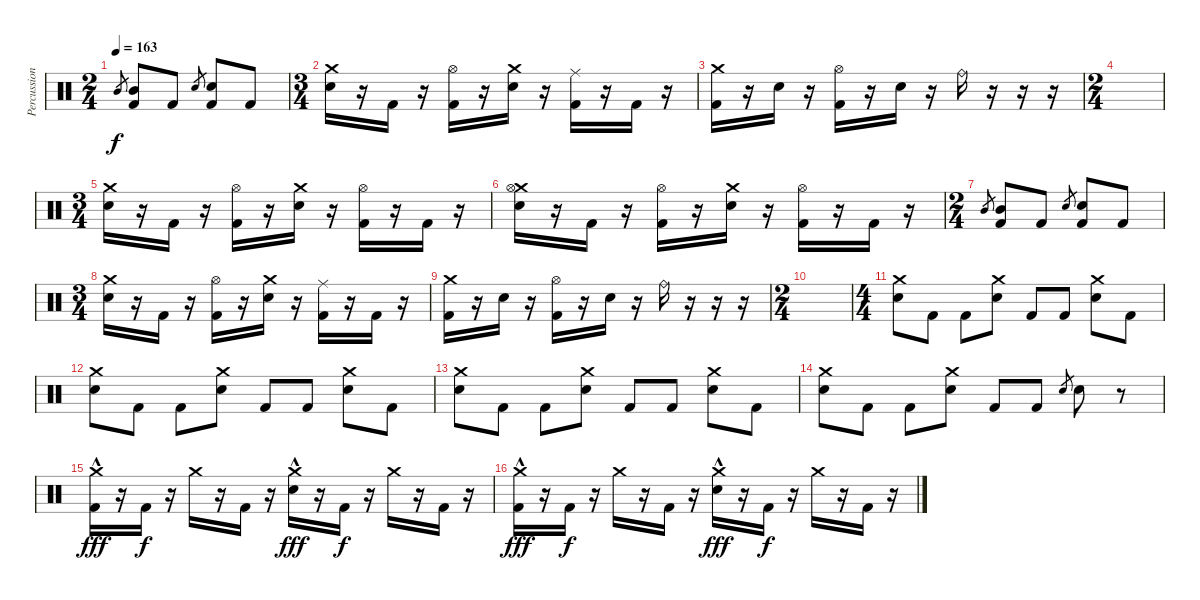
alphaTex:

\track ("Percussion" "Percussion") {instrument percussion}
\staff {score}
\articulation defaults
\ts (2 4)
\tempo 163
\clef neutral
\ks c "Mid Tom (hit)".8{gr dy f}
("Mid Tom (hit)" "Kick (hit) 2").8 "Kick (hit) 2".8 "Snare (hit) 2".8{gr} ("Snare (hit) 2" "Kick (hit) 2").8 "Kick (hit) 2".8 |
\ts (3 4)
("Crash medium (hit)" "Snare (hit) 2").16 r.16 "Kick (hit) 2".16 r.16 ("Hi-Hat (open)" "Kick (hit) 2").16 r.16 ("Crash medium (hit)" "Snare (hit) 2").16 r.16 ("Ride (middle)" "Kick (hit) 2").16 r.16 "Kick (hit) 2".16 r.16 |
("Crash medium (hit)" "Kick (hit) 2").16 r.16 "Snare (hit) 2".16 r.16 ("Hi-Hat (open)" "Kick (hit) 2").16 r.16 "Snare (hit) 2".16 r.16 "Ride (bell)".16 r.16 r.16 r.16 |
\ts (2 4)
|
\ts (3 4)
("Crash medium (hit)" "Snare (hit) 2").16 r.16 "Kick (hit) 2".16 r.16 ("Hi-Hat (open)" "Kick (hit) 2").16 r.16 ("Crash medium (hit)" "Snare (hit) 2").16 r.16 ("Hi-Hat (open)" "Kick (hit) 2").16 r.16 "Kick (hit) 2".16 r.16 |
("Crash medium (hit)" "Hi-Hat (open)" "Snare (hit) 2").16 r.16 "Kick (hit) 2".16 r.16 ("Hi-Hat (open)" "Kick (hit) 2").16 r.16 ("Crash medium (hit)" "Snare (hit) 2").16 r.16 ("Hi-Hat (open)" "Kick (hit) 2").16 r.16 "Kick (hit) 2".16 r.16 |
\ts (2 4)
"Mid Tom (hit)".8{gr} ("Mid Tom (hit)" "Kick (hit) 2").8 "Kick (hit) 2".8 "Snare (hit) 2".8{gr} ("Snare (hit) 2" "Kick (hit) 2").8 "Kick (hit) 2".8 |
\ts (3 4)
("Crash medium (hit)" "Snare (hit) 2").16 r.16 "Kick (hit) 2".16 r.16 ("Hi-Hat (open)" "Kick (hit) 2").16 r.16 ("Crash medium (hit)" "Snare (hit) 2").16 r.16 ("Ride (middle)" "Kick (hit) 2").16 r.16 "Kick (hit) 2".16 r.16 |
("Crash medium (hit)" "Kick (hit) 2").16 r.16 "Snare (hit) 2".16 r.16 ("Hi-Hat (open)" "Kick (hit) 2").16 r.16 "Snare (hit) 2".16 r.16 "Ride (bell)".16 r.16 r.16 r.16 |
\ts (2 4)
|
\ts (4 4)
("Crash medium (hit)" "Snare (hit) 2").8 "Kick (hit) 2".8 "Kick (hit) 2".8 ("Crash medium (hit)" "Snare (hit) 2").8 "Kick (hit) 2".8 "Kick (hit) 2".8 ("Crash medium (hit)" "Snare (hit) 2").8 "Kick (hit) 2".8 |
("Crash medium (hit)" "Snare (hit) 2").8 "Kick (hit) 2".8 "Kick (hit) 2".8 ("Crash medium (hit)" "Snare (hit) 2").8 "Kick (hit) 2".8 "Kick (hit) 2".8 ("Crash medium (hit)" "Snare (hit) 2").8 "Kick (hit) 2".8 |
("Crash medium (hit)" "Snare (hit) 2").8 "Kick (hit) 2".8 "Kick (hit) 2".8 ("Crash medium (hit)" "Snare (hit) 2").8 "Kick (hit) 2".8 "Kick (hit) 2".8 ("Crash medium (hit)" "Snare (hit) 2").8 "Kick (hit) 2".8 |
("Crash medium (hit)" "Snare (hit) 2").8 "Kick (hit) 2".8 "Kick (hit) 2".8 ("Crash medium (hit)" "Snare (hit) 2").8 "Kick (hit) 2".8 "Kick (hit) 2".8 "Snare (hit) 2".8{gr} "Snare (hit) 2".8 r.8 |
("Crash medium (hit)"{hac} "Kick (hit) 2").16{dy fff} r.16 "Kick (hit) 2".16{dy f} r.16 "Crash medium (hit)".16 r.16 "Kick (hit) 2".16 r.16 ("Crash medium (hit)"{hac} "Snare (hit) 2").16{dy fff} r.16 "Kick (hit) 2".16{dy f} r.16 "Crash medium (hit)".16 r.16 "Kick (hit) 2".16 r.16 |
("Crash medium (hit)"{hac} "Kick (hit) 2").16{dy fff} r.16 "Kick (hit) 2".16{dy f} r.16 "Crash medium (hit)".16 r.16 "Kick (hit) 2".16 r.16 ("Crash medium (hit)"{hac} "Snare (hit) 2").16{dy fff} r.16 "Kick (hit) 2".16{dy f} r.16 "Crash medium (hit)".16 r.16 "Kick (hit) 2".16 r.16
